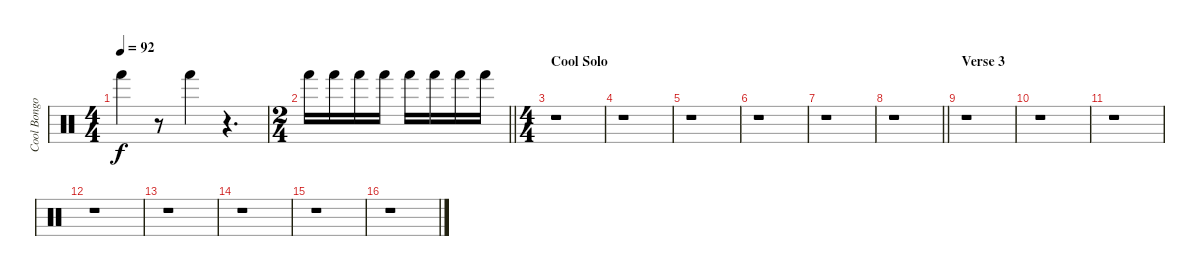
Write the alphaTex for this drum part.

\track ("Cool Bongo Background" "Cool Bongo") {instrument percussion}
\staff {score}
\articulation defaults
\ts (4 4)
\tempo 92
\clef neutral
\ks c "Hand (hit)".4{dy f}
r.8 "Hand (hit)".4 r.4{d} |
\ts (2 4)
\barLineRight lightlight "Hand (hit)".16 "Hand (hit)".16 "Hand (hit)".16 "Hand (hit)".16 "Hand (hit)".16 "Hand (hit)".16 "Hand (hit)".16 "Hand (hit)".16
|
\ts (4 4)
\section ("" "Cool Solo")
r.1 |
r.1 |
r.1 |
r.1 |
r.1 |
\barLineRight lightlight
r.1 |
\section ("" "Verse 3")
r.1 |
r.1 |
r.1 |
r.1 |
r.1 |
r.1 |
r.1 |
r.1
